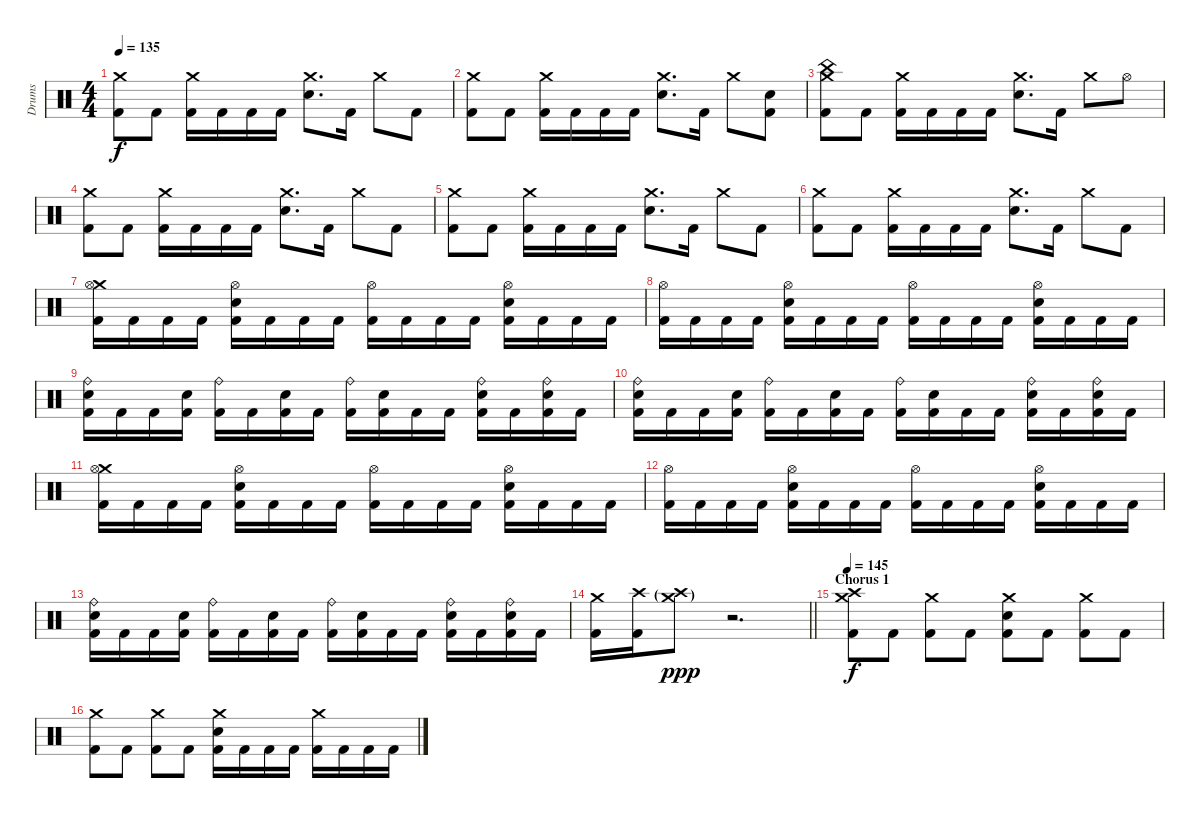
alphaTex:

\track ("Drums" "Drums") {instrument percussion}
\staff {score}
\articulation defaults
\ts (4 4)
\tempo 135
\clef neutral
\ks c
("Crash medium (hit)" "Kick (hit) 2").8{dy f} "Kick (hit) 2".8 ("Crash medium (hit)" "Kick (hit) 2").16 "Kick (hit) 2".16 "Kick (hit) 2".16 "Kick (hit) 2".16 ("Crash medium (hit)" "Electric Snare (hit)").8{d} "Kick (hit) 2".16 "Crash medium (hit)".8 "Kick (hit) 2".8 |
("Crash medium (hit)" "Kick (hit) 2").8 "Kick (hit) 2".8 ("Crash medium (hit)" "Kick (hit) 2").16 "Kick (hit) 2".16 "Kick (hit) 2".16 "Kick (hit) 2".16 ("Crash medium (hit)" "Electric Snare (hit)").8{d} "Kick (hit) 2".16 "Crash medium (hit)".8 ("Electric Snare (hit)" "Kick (hit) 2").8 |
("Crash medium (hit)" "China (hit)" "Kick (hit) 2").8 "Kick (hit) 2".8 ("Crash medium (hit)" "Kick (hit) 2").16 "Kick (hit) 2".16 "Kick (hit) 2".16 "Kick (hit) 2".16 ("Crash medium (hit)" "Electric Snare (hit)").8{d} "Kick (hit) 2".16 "Crash medium (hit)".8 "Hi-Hat (open)".8 |
("Crash medium (hit)" "Kick (hit) 2").8 "Kick (hit) 2".8 ("Crash medium (hit)" "Kick (hit) 2").16 "Kick (hit) 2".16 "Kick (hit) 2".16 "Kick (hit) 2".16 ("Crash medium (hit)" "Electric Snare (hit)").8{d} "Kick (hit) 2".16 "Crash medium (hit)".8 "Kick (hit) 2".8 |
("Crash medium (hit)" "Kick (hit) 2").8 "Kick (hit) 2".8 ("Crash medium (hit)" "Kick (hit) 2").16 "Kick (hit) 2".16 "Kick (hit) 2".16 "Kick (hit) 2".16 ("Crash medium (hit)" "Electric Snare (hit)").8{d} "Kick (hit) 2".16 "Crash medium (hit)".8 "Kick (hit) 2".8 |
("Crash medium (hit)" "Kick (hit) 2").8 "Kick (hit) 2".8 ("Crash medium (hit)" "Kick (hit) 2").16 "Kick (hit) 2".16 "Kick (hit) 2".16 "Kick (hit) 2".16 ("Crash medium (hit)" "Electric Snare (hit)").8{d} "Kick (hit) 2".16 "Crash medium (hit)".8 "Kick (hit) 2".8 |
("Crash medium (hit)" "Hi-Hat (open)" "Kick (hit) 2").16 "Kick (hit) 2".16 "Kick (hit) 2".16 "Kick (hit) 2".16 ("Hi-Hat (open)" "Electric Snare (hit)" "Kick (hit) 2").16 "Kick (hit) 2".16 "Kick (hit) 2".16 "Kick (hit) 2".16 ("Hi-Hat (open)" "Kick (hit) 2").16 "Kick (hit) 2".16 "Kick (hit) 2".16 "Kick (hit) 2".16 ("Hi-Hat (open)" "Electric Snare (hit)" "Kick (hit) 2").16 "Kick (hit) 2".16 "Kick (hit) 2".16 "Kick (hit) 2".16 |
("Hi-Hat (open)" "Kick (hit) 2").16 "Kick (hit) 2".16 "Kick (hit) 2".16 "Kick (hit) 2".16 ("Hi-Hat (open)" "Electric Snare (hit)" "Kick (hit) 2").16 "Kick (hit) 2".16 "Kick (hit) 2".16 "Kick (hit) 2".16 ("Hi-Hat (open)" "Kick (hit) 2").16 "Kick (hit) 2".16 "Kick (hit) 2".16 "Kick (hit) 2".16 ("Hi-Hat (open)" "Electric Snare (hit)" "Kick (hit) 2").16 "Kick (hit) 2".16 "Kick (hit) 2".16 "Kick (hit) 2".16 |
("Ride (bell)" "Electric Snare (hit)" "Kick (hit) 2").16 "Kick (hit) 2".16 "Kick (hit) 2".16 ("Electric Snare (hit)" "Kick (hit) 2").16 ("Ride (bell)" "Kick (hit) 2").16 "Kick (hit) 2".16 ("Electric Snare (hit)" "Kick (hit) 2").16 "Kick (hit) 2".16 ("Ride (bell)" "Kick (hit) 2").16 ("Electric Snare (hit)" "Kick (hit) 2").16 "Kick (hit) 2".16 "Kick (hit) 2".16 ("Ride (bell)" "Electric Snare (hit)" "Kick (hit) 2").16 "Kick (hit) 2".16 ("Ride (bell)" "Electric Snare (hit)" "Kick (hit) 2").16 "Kick (hit) 2".16 |
("Ride (bell)" "Electric Snare (hit)" "Kick (hit) 2").16 "Kick (hit) 2".16 "Kick (hit) 2".16 ("Electric Snare (hit)" "Kick (hit) 2").16 ("Ride (bell)" "Kick (hit) 2").16 "Kick (hit) 2".16 ("Electric Snare (hit)" "Kick (hit) 2").16 "Kick (hit) 2".16 ("Ride (bell)" "Kick (hit) 2").16 ("Electric Snare (hit)" "Kick (hit) 2").16 "Kick (hit) 2".16 "Kick (hit) 2".16 ("Ride (bell)" "Electric Snare (hit)" "Kick (hit) 2").16 "Kick (hit) 2".16 ("Ride (bell)" "Electric Snare (hit)" "Kick (hit) 2").16 "Kick (hit) 2".16 |
("Crash medium (hit)" "Hi-Hat (open)" "Kick (hit) 2").16 "Kick (hit) 2".16 "Kick (hit) 2".16 "Kick (hit) 2".16 ("Hi-Hat (open)" "Electric Snare (hit)" "Kick (hit) 2").16 "Kick (hit) 2".16 "Kick (hit) 2".16 "Kick (hit) 2".16 ("Hi-Hat (open)" "Kick (hit) 2").16 "Kick (hit) 2".16 "Kick (hit) 2".16 "Kick (hit) 2".16 ("Hi-Hat (open)" "Electric Snare (hit)" "Kick (hit) 2").16 "Kick (hit) 2".16 "Kick (hit) 2".16 "Kick (hit) 2".16 |
("Hi-Hat (open)" "Kick (hit) 2").16 "Kick (hit) 2".16 "Kick (hit) 2".16 "Kick (hit) 2".16 ("Hi-Hat (open)" "Electric Snare (hit)" "Kick (hit) 2").16 "Kick (hit) 2".16 "Kick (hit) 2".16 "Kick (hit) 2".16 ("Hi-Hat (open)" "Kick (hit) 2").16 "Kick (hit) 2".16 "Kick (hit) 2".16 "Kick (hit) 2".16 ("Hi-Hat (open)" "Electric Snare (hit)" "Kick (hit) 2").16 "Kick (hit) 2".16 "Kick (hit) 2".16 "Kick (hit) 2".16 |
("Ride (bell)" "Electric Snare (hit)" "Kick (hit) 2").16 "Kick (hit) 2".16 "Kick (hit) 2".16 ("Electric Snare (hit)" "Kick (hit) 2").16 ("Ride (bell)" "Kick (hit) 2").16 "Kick (hit) 2".16 ("Electric Snare (hit)" "Kick (hit) 2").16 "Kick (hit) 2".16 ("Ride (bell)" "Kick (hit) 2").16 ("Electric Snare (hit)" "Kick (hit) 2").16 "Kick (hit) 2".16 "Kick (hit) 2".16 ("Ride (bell)" "Electric Snare (hit)" "Kick (hit) 2").16 "Kick (hit) 2".16 ("Ride (bell)" "Electric Snare (hit)" "Kick (hit) 2").16 "Kick (hit) 2".16 |
\barLineRight lightlight
("Crash medium (hit)" "Kick (hit) 2").16 ("Crash high (hit)" "Kick (hit) 2").16 ("Crash medium (hit)"{g} "Crash high (hit)"{g}).8{dy ppp} r.2{d} |
\section ("" "Chorus 1")
\tempo 145
("Crash medium (hit)" "Crash high (hit)" "Kick (hit) 2").8{dy f} "Kick (hit) 2".8 ("Crash medium (hit)" "Kick (hit) 2").8 "Kick (hit) 2".8 ("Crash medium (hit)" "Electric Snare (hit)" "Kick (hit) 2").8 "Kick (hit) 2".8 ("Crash medium (hit)" "Kick (hit) 2").8 "Kick (hit) 2".8 |
("Crash medium (hit)" "Kick (hit) 2").8 "Kick (hit) 2".8 ("Crash medium (hit)" "Kick (hit) 2").8 "Kick (hit) 2".8 ("Crash medium (hit)" "Electric Snare (hit)" "Kick (hit) 2").16 "Kick (hit) 2".16 "Kick (hit) 2".16 "Kick (hit) 2".16 ("Crash medium (hit)" "Kick (hit) 2").16 "Kick (hit) 2".16 "Kick (hit) 2".16 "Kick (hit) 2".16
